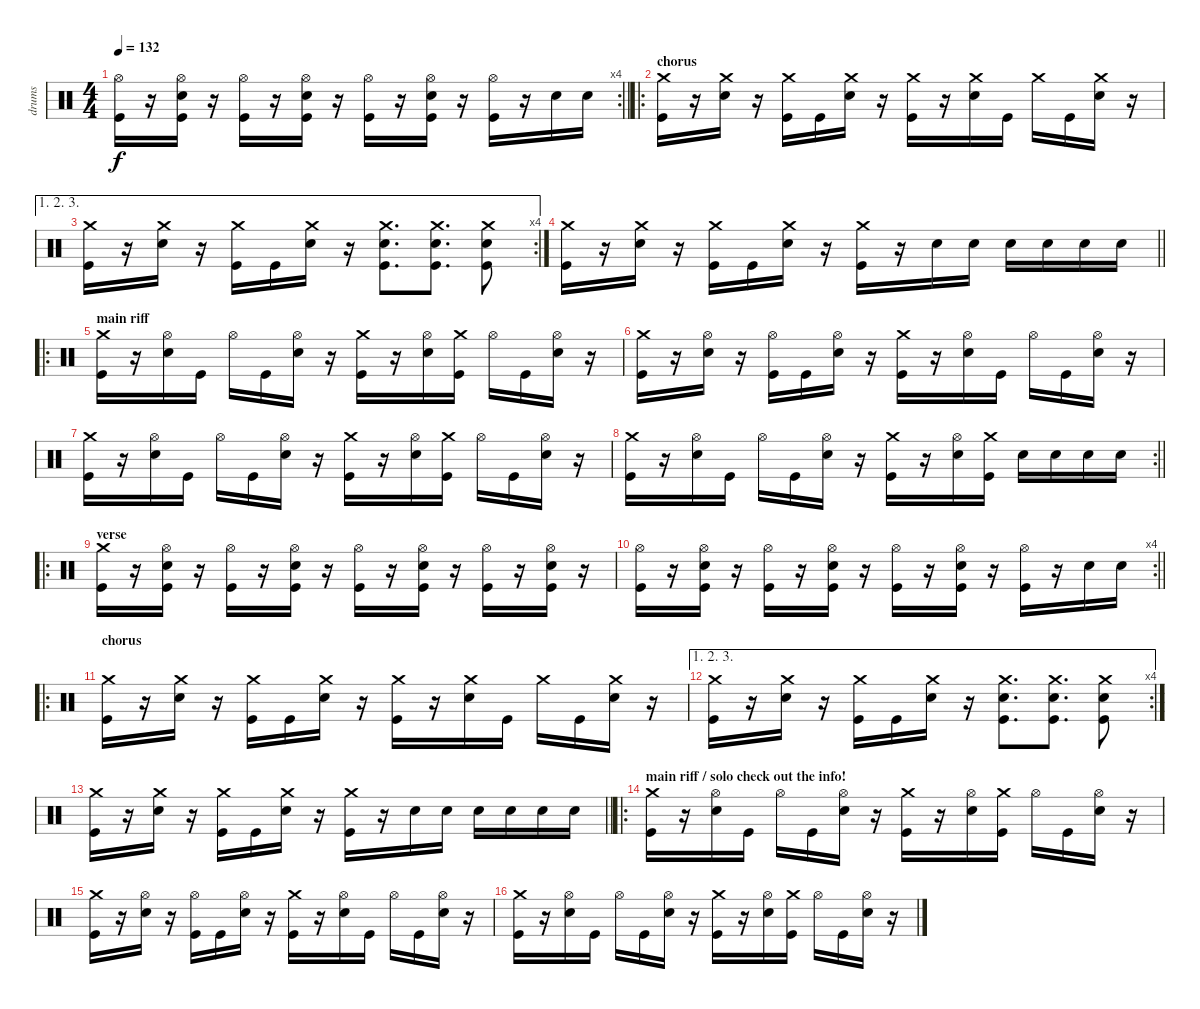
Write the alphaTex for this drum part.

\track ("drums" "drums") {instrument percussion}
\staff {score}
\articulation defaults
\rc 4
\ts (4 4)
\tempo 132
\clef neutral
\barLineRight lightlight
\ks c
("Hi-Hat (open)" "Kick (hit)").16{dy f} r.16 ("Hi-Hat (open)" "Snare (hit) 2" "Kick (hit)").16 r.16 ("Hi-Hat (open)" "Kick (hit)").16 r.16 ("Hi-Hat (open)" "Snare (hit) 2" "Kick (hit)").16 r.16 ("Hi-Hat (open)" "Kick (hit)").16 r.16 ("Hi-Hat (open)" "Snare (hit) 2" "Kick (hit)").16 r.16 ("Hi-Hat (open)" "Kick (hit)").16 r.16 "Snare (hit) 2".16 "Snare (hit) 2".16 |
\ro
\section ("" "chorus")
("Crash medium (hit)" "Kick (hit)").16 r.16 ("Crash medium (hit)" "Snare (hit) 2").16 r.16 ("Crash medium (hit)" "Kick (hit)").16 "Kick (hit)".16 ("Crash medium (hit)" "Snare (hit) 2").16 r.16 ("Crash medium (hit)" "Kick (hit)").16 r.16 ("Crash medium (hit)" "Snare (hit) 2").16 "Kick (hit)".16 "Crash medium (hit)".16 "Kick (hit)".16 ("Crash medium (hit)" "Snare (hit) 2").16 r.16 |
\ae (1 2 3)
\rc 4
("Crash medium (hit)" "Kick (hit)").16 r.16 ("Crash medium (hit)" "Snare (hit) 2").16 r.16 ("Crash medium (hit)" "Kick (hit)").16 "Kick (hit)".16 ("Crash medium (hit)" "Snare (hit) 2").16 r.16 ("Crash medium (hit)" "Snare (hit) 2" "Kick (hit)").8{d} ("Crash medium (hit)" "Snare (hit) 2" "Kick (hit)").8{d} ("Crash medium (hit)" "Snare (hit) 2" "Kick (hit)").8 |
\barLineRight lightlight
("Crash medium (hit)" "Kick (hit)").16 r.16 ("Crash medium (hit)" "Snare (hit) 2").16 r.16 ("Crash medium (hit)" "Kick (hit)").16 "Kick (hit)".16 ("Crash medium (hit)" "Snare (hit) 2").16 r.16 ("Crash medium (hit)" "Kick (hit)").16 r.16 "Snare (hit) 2".16 "Snare (hit) 2".16 "Snare (hit) 2".16 "Snare (hit) 2".16 "Snare (hit) 2".16 "Snare (hit) 2".16 |
\ro
\section ("" "main riff")
("Crash medium (hit)" "Kick (hit)").16 r.16 ("Hi-Hat (open)" "Snare (hit) 2").16 "Kick (hit)".16 "Hi-Hat (open)".16 "Kick (hit)".16 ("Hi-Hat (open)" "Snare (hit) 2").16 r.16 ("Crash medium (hit)" "Kick (hit)").16 r.16 ("Hi-Hat (open)" "Snare (hit) 2").16 ("Crash medium (hit)" "Kick (hit)").16 "Hi-Hat (open)".16 "Kick (hit)".16 ("Hi-Hat (open)" "Snare (hit) 2").16 r.16 |
("Crash medium (hit)" "Kick (hit)").16 r.16 ("Hi-Hat (open)" "Snare (hit) 2").16 r.16 ("Hi-Hat (open)" "Kick (hit)").16 "Kick (hit)".16 ("Hi-Hat (open)" "Snare (hit) 2").16 r.16 ("Crash medium (hit)" "Kick (hit)").16 r.16 ("Hi-Hat (open)" "Snare (hit) 2").16 "Kick (hit)".16 "Hi-Hat (open)".16 "Kick (hit)".16 ("Hi-Hat (open)" "Snare (hit) 2").16 r.16 |
("Crash medium (hit)" "Kick (hit)").16 r.16 ("Hi-Hat (open)" "Snare (hit) 2").16 "Kick (hit)".16 "Hi-Hat (open)".16 "Kick (hit)".16 ("Hi-Hat (open)" "Snare (hit) 2").16 r.16 ("Crash medium (hit)" "Kick (hit)").16 r.16 ("Hi-Hat (open)" "Snare (hit) 2").16 ("Crash medium (hit)" "Kick (hit)").16 "Hi-Hat (open)".16 "Kick (hit)".16 ("Hi-Hat (open)" "Snare (hit) 2").16 r.16 |
\rc 2
\barLineRight lightlight
("Crash medium (hit)" "Kick (hit)").16 r.16 ("Hi-Hat (open)" "Snare (hit) 2").16 "Kick (hit)".16 "Hi-Hat (open)".16 "Kick (hit)".16 ("Hi-Hat (open)" "Snare (hit) 2").16 r.16 ("Crash medium (hit)" "Kick (hit)").16 r.16 ("Hi-Hat (open)" "Snare (hit) 2").16 ("Crash medium (hit)" "Kick (hit)").16 "Snare (hit) 2".16 "Snare (hit) 2".16 "Snare (hit) 2".16 "Snare (hit) 2".16 |
\ro
\section ("" "verse")
("Crash medium (hit)" "Kick (hit)").16 r.16 ("Hi-Hat (open)" "Snare (hit) 2" "Kick (hit)").16 r.16 ("Hi-Hat (open)" "Kick (hit)").16 r.16 ("Hi-Hat (open)" "Snare (hit) 2" "Kick (hit)").16 r.16 ("Hi-Hat (open)" "Kick (hit)").16 r.16 ("Hi-Hat (open)" "Snare (hit) 2" "Kick (hit)").16 r.16 ("Hi-Hat (open)" "Kick (hit)").16 r.16 ("Hi-Hat (open)" "Snare (hit) 2" "Kick (hit)").16 r.16 |
\rc 4
\barLineRight lightlight
("Hi-Hat (open)" "Kick (hit)").16 r.16 ("Hi-Hat (open)" "Snare (hit) 2" "Kick (hit)").16 r.16 ("Hi-Hat (open)" "Kick (hit)").16 r.16 ("Hi-Hat (open)" "Snare (hit) 2" "Kick (hit)").16 r.16 ("Hi-Hat (open)" "Kick (hit)").16 r.16 ("Hi-Hat (open)" "Snare (hit) 2" "Kick (hit)").16 r.16 ("Hi-Hat (open)" "Kick (hit)").16 r.16 "Snare (hit) 2".16 "Snare (hit) 2".16 |
\ro
\section ("" "chorus")
("Crash medium (hit)" "Kick (hit)").16 r.16 ("Crash medium (hit)" "Snare (hit) 2").16 r.16 ("Crash medium (hit)" "Kick (hit)").16 "Kick (hit)".16 ("Crash medium (hit)" "Snare (hit) 2").16 r.16 ("Crash medium (hit)" "Kick (hit)").16 r.16 ("Crash medium (hit)" "Snare (hit) 2").16 "Kick (hit)".16 "Crash medium (hit)".16 "Kick (hit)".16 ("Crash medium (hit)" "Snare (hit) 2").16 r.16 |
\ae (1 2 3)
\rc 4
("Crash medium (hit)" "Kick (hit)").16 r.16 ("Crash medium (hit)" "Snare (hit) 2").16 r.16 ("Crash medium (hit)" "Kick (hit)").16 "Kick (hit)".16 ("Crash medium (hit)" "Snare (hit) 2").16 r.16 ("Crash medium (hit)" "Snare (hit) 2" "Kick (hit)").8{d} ("Crash medium (hit)" "Snare (hit) 2" "Kick (hit)").8{d} ("Crash medium (hit)" "Snare (hit) 2" "Kick (hit)").8 |
\barLineRight lightlight
("Crash medium (hit)" "Kick (hit)").16 r.16 ("Crash medium (hit)" "Snare (hit) 2").16 r.16 ("Crash medium (hit)" "Kick (hit)").16 "Kick (hit)".16 ("Crash medium (hit)" "Snare (hit) 2").16 r.16 ("Crash medium (hit)" "Kick (hit)").16 r.16 "Snare (hit) 2".16 "Snare (hit) 2".16 "Snare (hit) 2".16 "Snare (hit) 2".16 "Snare (hit) 2".16 "Snare (hit) 2".16 |
\ro
\section ("" "main riff / solo check out the info!")
("Crash medium (hit)" "Kick (hit)").16 r.16 ("Hi-Hat (open)" "Snare (hit) 2").16 "Kick (hit)".16 "Hi-Hat (open)".16 "Kick (hit)".16 ("Hi-Hat (open)" "Snare (hit) 2").16 r.16 ("Crash medium (hit)" "Kick (hit)").16 r.16 ("Hi-Hat (open)" "Snare (hit) 2").16 ("Crash medium (hit)" "Kick (hit)").16 "Hi-Hat (open)".16 "Kick (hit)".16 ("Hi-Hat (open)" "Snare (hit) 2").16 r.16 |
("Crash medium (hit)" "Kick (hit)").16 r.16 ("Hi-Hat (open)" "Snare (hit) 2").16 r.16 ("Hi-Hat (open)" "Kick (hit)").16 "Kick (hit)".16 ("Hi-Hat (open)" "Snare (hit) 2").16 r.16 ("Crash medium (hit)" "Kick (hit)").16 r.16 ("Hi-Hat (open)" "Snare (hit) 2").16 "Kick (hit)".16 "Hi-Hat (open)".16 "Kick (hit)".16 ("Hi-Hat (open)" "Snare (hit) 2").16 r.16 |
("Crash medium (hit)" "Kick (hit)").16 r.16 ("Hi-Hat (open)" "Snare (hit) 2").16 "Kick (hit)".16 "Hi-Hat (open)".16 "Kick (hit)".16 ("Hi-Hat (open)" "Snare (hit) 2").16 r.16 ("Crash medium (hit)" "Kick (hit)").16 r.16 ("Hi-Hat (open)" "Snare (hit) 2").16 ("Crash medium (hit)" "Kick (hit)").16 "Hi-Hat (open)".16 "Kick (hit)".16 ("Hi-Hat (open)" "Snare (hit) 2").16 r.16
